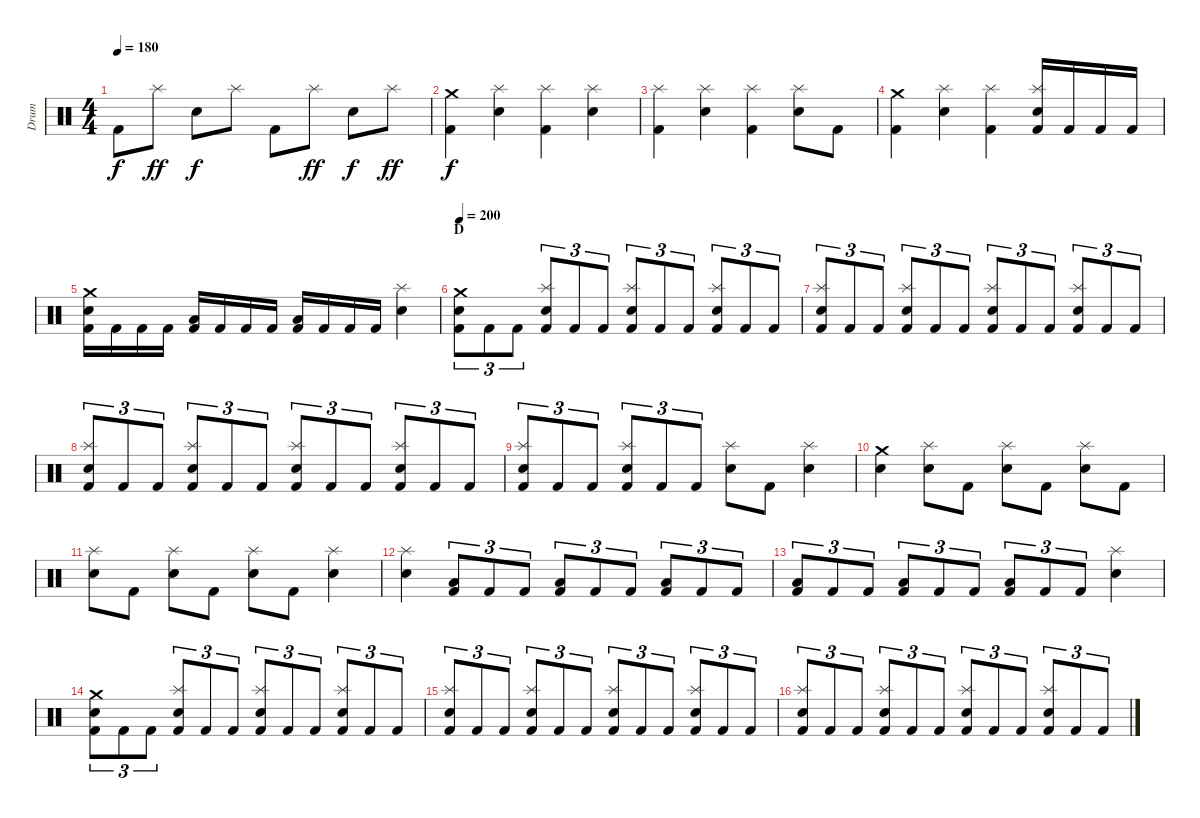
\track ("Drum" "Drum") {instrument percussion}
\staff {score}
\articulation defaults
\ts (4 4)
\tempo 180
\clef neutral
\ks c "Kick (hit) 2".8{dy f} "Splash (hit)".8{dy ff} "Electric Snare (hit)".8{dy f} "Splash (hit)".8 "Kick (hit) 2".8 "Splash (hit)".8{dy ff} "Electric Snare (hit)".8{dy f} "Splash (hit)".8{dy ff}
|
("Crash medium (hit)" "Kick (hit) 2").4{dy f} ("Splash (hit)" "Electric Snare (hit)").4 ("Splash (hit)" "Kick (hit) 2").4 ("Splash (hit)" "Electric Snare (hit)").4 |
("Splash (hit)" "Kick (hit) 2").4 ("Splash (hit)" "Electric Snare (hit)").4 ("Splash (hit)" "Kick (hit) 2").4 ("Splash (hit)" "Electric Snare (hit)").8 "Kick (hit) 2".8 |
("Crash medium (hit)" "Kick (hit) 2").4 ("Splash (hit)" "Electric Snare (hit)").4 ("Splash (hit)" "Kick (hit) 2").4 ("Splash (hit)" "Electric Snare (hit)" "Kick (hit) 2").16 "Kick (hit) 2".16 "Kick (hit) 2".16 "Kick (hit) 2".16 |
("Crash medium (hit)" "Electric Snare (hit)" "Kick (hit) 2").16 "Kick (hit) 2".16 "Kick (hit) 2".16 "Kick (hit) 2".16 ("Low Tom (hit)" "Kick (hit) 2").16 "Kick (hit) 2".16 "Kick (hit) 2".16 "Kick (hit) 2".16 ("Low Tom (hit)" "Kick (hit) 2").16 "Kick (hit) 2".16 "Kick (hit) 2".16 "Kick (hit) 2".16 ("Splash (hit)" "Electric Snare (hit)").4 |
\section ("" "D")
\tempo 200
("Crash medium (hit)" "Electric Snare (hit)" "Kick (hit) 2").8{tu (3 2)} "Kick (hit) 2".8{tu (3 2)} "Kick (hit) 2".8{tu (3 2)} ("Splash (hit)" "Electric Snare (hit)" "Kick (hit) 2").8{tu (3 2)} "Kick (hit) 2".8{tu (3 2)} "Kick (hit) 2".8{tu (3 2)} ("Splash (hit)" "Electric Snare (hit)" "Kick (hit) 2").8{tu (3 2)} "Kick (hit) 2".8{tu (3 2)} "Kick (hit) 2".8{tu (3 2)} ("Splash (hit)" "Electric Snare (hit)" "Kick (hit) 2").8{tu (3 2)} "Kick (hit) 2".8{tu (3 2)} "Kick (hit) 2".8{tu (3 2)} |
("Splash (hit)" "Electric Snare (hit)" "Kick (hit) 2").8{tu (3 2)} "Kick (hit) 2".8{tu (3 2)} "Kick (hit) 2".8{tu (3 2)} ("Splash (hit)" "Electric Snare (hit)" "Kick (hit) 2").8{tu (3 2)} "Kick (hit) 2".8{tu (3 2)} "Kick (hit) 2".8{tu (3 2)} ("Splash (hit)" "Electric Snare (hit)" "Kick (hit) 2").8{tu (3 2)} "Kick (hit) 2".8{tu (3 2)} "Kick (hit) 2".8{tu (3 2)} ("Splash (hit)" "Electric Snare (hit)" "Kick (hit) 2").8{tu (3 2)} "Kick (hit) 2".8{tu (3 2)} "Kick (hit) 2".8{tu (3 2)} |
("Splash (hit)" "Electric Snare (hit)" "Kick (hit) 2").8{tu (3 2)} "Kick (hit) 2".8{tu (3 2)} "Kick (hit) 2".8{tu (3 2)} ("Splash (hit)" "Electric Snare (hit)" "Kick (hit) 2").8{tu (3 2)} "Kick (hit) 2".8{tu (3 2)} "Kick (hit) 2".8{tu (3 2)} ("Splash (hit)" "Electric Snare (hit)" "Kick (hit) 2").8{tu (3 2)} "Kick (hit) 2".8{tu (3 2)} "Kick (hit) 2".8{tu (3 2)} ("Splash (hit)" "Electric Snare (hit)" "Kick (hit) 2").8{tu (3 2)} "Kick (hit) 2".8{tu (3 2)} "Kick (hit) 2".8{tu (3 2)} |
("Splash (hit)" "Electric Snare (hit)" "Kick (hit) 2").8{tu (3 2)} "Kick (hit) 2".8{tu (3 2)} "Kick (hit) 2".8{tu (3 2)} ("Splash (hit)" "Electric Snare (hit)" "Kick (hit) 2").8{tu (3 2)} "Kick (hit) 2".8{tu (3 2)} "Kick (hit) 2".8{tu (3 2)} ("Splash (hit)" "Electric Snare (hit)").8 "Kick (hit) 2".8 ("Splash (hit)" "Electric Snare (hit)").4 |
("Crash medium (hit)" "Electric Snare (hit)").4 ("Splash (hit)" "Electric Snare (hit)").8 "Kick (hit) 2".8 ("Splash (hit)" "Electric Snare (hit)").8 "Kick (hit) 2".8 ("Splash (hit)" "Electric Snare (hit)").8 "Kick (hit) 2".8 |
("Splash (hit)" "Electric Snare (hit)").8 "Kick (hit) 2".8 ("Splash (hit)" "Electric Snare (hit)").8 "Kick (hit) 2".8 ("Splash (hit)" "Electric Snare (hit)").8 "Kick (hit) 2".8 ("Splash (hit)" "Electric Snare (hit)").4 |
("Splash (hit)" "Electric Snare (hit)").4 ("Low Tom (hit)" "Kick (hit) 2").8{tu (3 2)} "Kick (hit) 2".8{tu (3 2)} "Kick (hit) 2".8{tu (3 2)} ("Low Tom (hit)" "Kick (hit) 2").8{tu (3 2)} "Kick (hit) 2".8{tu (3 2)} "Kick (hit) 2".8{tu (3 2)} ("Low Tom (hit)" "Kick (hit) 2").8{tu (3 2)} "Kick (hit) 2".8{tu (3 2)} "Kick (hit) 2".8{tu (3 2)} |
("Low Tom (hit)" "Kick (hit) 2").8{tu (3 2)} "Kick (hit) 2".8{tu (3 2)} "Kick (hit) 2".8{tu (3 2)} ("Low Tom (hit)" "Kick (hit) 2").8{tu (3 2)} "Kick (hit) 2".8{tu (3 2)} "Kick (hit) 2".8{tu (3 2)} ("Low Tom (hit)" "Kick (hit) 2").8{tu (3 2)} "Kick (hit) 2".8{tu (3 2)} "Kick (hit) 2".8{tu (3 2)} ("Splash (hit)" "Electric Snare (hit)").4 |
("Crash medium (hit)" "Electric Snare (hit)" "Kick (hit) 2").8{tu (3 2)} "Kick (hit) 2".8{tu (3 2)} "Kick (hit) 2".8{tu (3 2)} ("Splash (hit)" "Electric Snare (hit)" "Kick (hit) 2").8{tu (3 2)} "Kick (hit) 2".8{tu (3 2)} "Kick (hit) 2".8{tu (3 2)} ("Splash (hit)" "Electric Snare (hit)" "Kick (hit) 2").8{tu (3 2)} "Kick (hit) 2".8{tu (3 2)} "Kick (hit) 2".8{tu (3 2)} ("Splash (hit)" "Electric Snare (hit)" "Kick (hit) 2").8{tu (3 2)} "Kick (hit) 2".8{tu (3 2)} "Kick (hit) 2".8{tu (3 2)} |
("Splash (hit)" "Electric Snare (hit)" "Kick (hit) 2").8{tu (3 2)} "Kick (hit) 2".8{tu (3 2)} "Kick (hit) 2".8{tu (3 2)} ("Splash (hit)" "Electric Snare (hit)" "Kick (hit) 2").8{tu (3 2)} "Kick (hit) 2".8{tu (3 2)} "Kick (hit) 2".8{tu (3 2)} ("Splash (hit)" "Electric Snare (hit)" "Kick (hit) 2").8{tu (3 2)} "Kick (hit) 2".8{tu (3 2)} "Kick (hit) 2".8{tu (3 2)} ("Splash (hit)" "Electric Snare (hit)" "Kick (hit) 2").8{tu (3 2)} "Kick (hit) 2".8{tu (3 2)} "Kick (hit) 2".8{tu (3 2)} |
("Splash (hit)" "Electric Snare (hit)" "Kick (hit) 2").8{tu (3 2)} "Kick (hit) 2".8{tu (3 2)} "Kick (hit) 2".8{tu (3 2)} ("Splash (hit)" "Electric Snare (hit)" "Kick (hit) 2").8{tu (3 2)} "Kick (hit) 2".8{tu (3 2)} "Kick (hit) 2".8{tu (3 2)} ("Splash (hit)" "Electric Snare (hit)" "Kick (hit) 2").8{tu (3 2)} "Kick (hit) 2".8{tu (3 2)} "Kick (hit) 2".8{tu (3 2)} ("Splash (hit)" "Electric Snare (hit)" "Kick (hit) 2").8{tu (3 2)} "Kick (hit) 2".8{tu (3 2)} "Kick (hit) 2".8{tu (3 2)}
